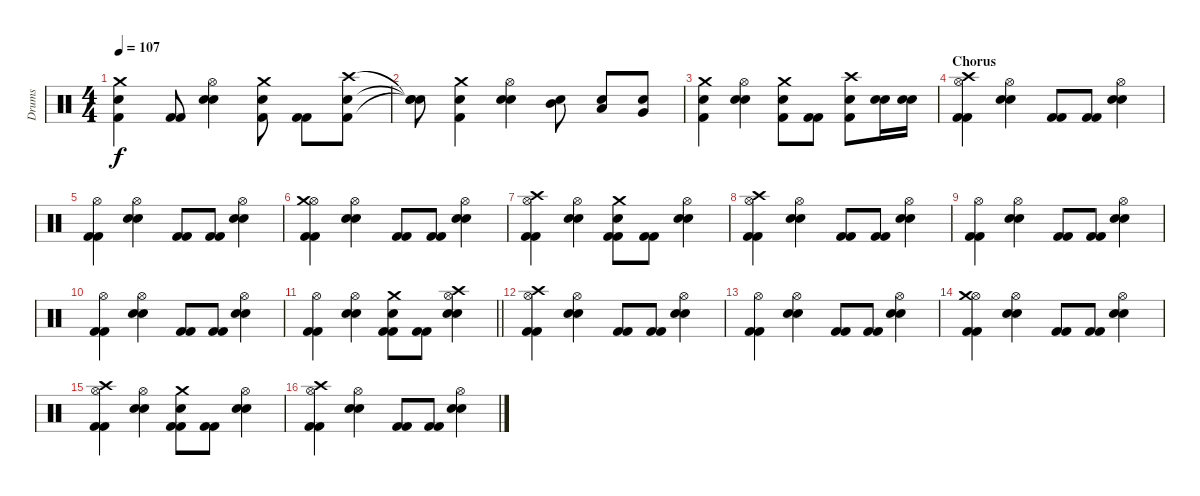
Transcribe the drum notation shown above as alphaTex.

\track ("Drums" "Drums") {instrument percussion}
\staff {score}
\articulation defaults
\ts (4 4)
\tempo 107
\clef neutral
\ks c
("Kick (hit) 2" "Snare (hit) 2" "Crash medium (hit)").4{dy f} ("Kick (hit) 2" "Kick (hit) 2").8 ("Snare (hit) 2" "Snare (hit) 2" "Hi-Hat (open)").4 ("Kick (hit) 2" "Snare (hit) 2" "Crash medium (hit)").8 ("Kick (hit) 2" "Kick (hit) 2").8 ("Kick (hit) 2" "Snare (hit) 2" "Crash high (hit)").8 |
("Snare (hit)"{t} "Snare (hit)"{t} "Snare (hit)"{t}).8 ("Kick (hit) 2" "Snare (hit) 2" "Crash medium (hit)").4 ("Snare (hit) 2" "Snare (hit) 2" "Hi-Hat (open)").4 ("Mid Tom (hit)" "Snare (hit) 2").8 ("Low Tom (hit)" "Snare (hit) 2").8 ("Very Low Tom (hit)" "Snare (hit) 2").8 |
("Kick (hit) 2" "Snare (hit) 2" "Crash medium (hit)").4 ("Snare (hit) 2" "Snare (hit) 2" "Hi-Hat (open)").4 ("Kick (hit) 2" "Snare (hit) 2" "Crash medium (hit)").8 ("Kick (hit) 2" "Kick (hit) 2").8 ("Kick (hit) 2" "Snare (hit) 2" "Crash high (hit)").8 ("Snare (hit) 2" "Snare (hit) 2").16 ("Snare (hit) 2" "Snare (hit) 2").16 |
\section ("" "Chorus")
("Kick (hit) 2" "Kick (hit) 2" "Hi-Hat (open)" "Crash high (hit)").4 ("Snare (hit) 2" "Snare (hit) 2" "Hi-Hat (open)").4 ("Kick (hit) 2" "Kick (hit) 2").8 ("Kick (hit) 2" "Kick (hit) 2").8 ("Snare (hit) 2" "Snare (hit) 2" "Hi-Hat (open)").4 |
("Kick (hit) 2" "Kick (hit) 2" "Hi-Hat (open)").4 ("Snare (hit) 2" "Snare (hit) 2" "Hi-Hat (open)").4 ("Kick (hit) 2" "Kick (hit) 2").8 ("Kick (hit) 2" "Kick (hit) 2").8 ("Snare (hit) 2" "Snare (hit) 2" "Hi-Hat (open)").4 |
("Kick (hit) 2" "Kick (hit) 2" "Hi-Hat (open)" "Crash medium (hit)").4 ("Snare (hit) 2" "Snare (hit) 2" "Hi-Hat (open)").4 ("Kick (hit) 2" "Kick (hit) 2").8 ("Kick (hit) 2" "Kick (hit) 2").8 ("Snare (hit) 2" "Snare (hit) 2" "Hi-Hat (open)").4 |
("Kick (hit) 2" "Kick (hit) 2" "Hi-Hat (open)" "Crash high (hit)").4 ("Snare (hit) 2" "Snare (hit) 2" "Hi-Hat (open)").4 ("Kick (hit) 2" "Kick (hit) 2" "Crash medium (hit)" "Snare (hit) 2").8 ("Kick (hit) 2" "Kick (hit) 2").8 ("Snare (hit) 2" "Snare (hit) 2" "Hi-Hat (open)").4 |
("Kick (hit) 2" "Kick (hit) 2" "Hi-Hat (open)" "Crash high (hit)").4 ("Snare (hit) 2" "Snare (hit) 2" "Hi-Hat (open)").4 ("Kick (hit) 2" "Kick (hit) 2").8 ("Kick (hit) 2" "Kick (hit) 2").8 ("Snare (hit) 2" "Snare (hit) 2" "Hi-Hat (open)").4 |
("Kick (hit) 2" "Kick (hit) 2" "Hi-Hat (open)").4 ("Snare (hit) 2" "Snare (hit) 2" "Hi-Hat (open)").4 ("Kick (hit) 2" "Kick (hit) 2").8 ("Kick (hit) 2" "Kick (hit) 2").8 ("Snare (hit) 2" "Snare (hit) 2" "Hi-Hat (open)").4 |
("Kick (hit) 2" "Kick (hit) 2" "Hi-Hat (open)").4 ("Snare (hit) 2" "Snare (hit) 2" "Hi-Hat (open)").4 ("Kick (hit) 2" "Kick (hit) 2").8 ("Kick (hit) 2" "Kick (hit) 2").8 ("Snare (hit) 2" "Snare (hit) 2" "Hi-Hat (open)").4 |
\barLineRight lightlight
("Kick (hit) 2" "Kick (hit) 2" "Hi-Hat (open)").4 ("Snare (hit) 2" "Snare (hit) 2" "Hi-Hat (open)").4 ("Kick (hit) 2" "Kick (hit) 2" "Crash medium (hit)" "Snare (hit) 2").8 ("Kick (hit) 2" "Kick (hit) 2").8 ("Snare (hit) 2" "Snare (hit) 2" "Hi-Hat (open)" "Crash high (hit)").4 |
("Kick (hit) 2" "Kick (hit) 2" "Hi-Hat (open)" "Crash high (hit)").4 ("Snare (hit) 2" "Snare (hit) 2" "Hi-Hat (open)").4 ("Kick (hit) 2" "Kick (hit) 2").8 ("Kick (hit) 2" "Kick (hit) 2").8 ("Snare (hit) 2" "Snare (hit) 2" "Hi-Hat (open)").4 |
("Kick (hit) 2" "Kick (hit) 2" "Hi-Hat (open)").4 ("Snare (hit) 2" "Snare (hit) 2" "Hi-Hat (open)").4 ("Kick (hit) 2" "Kick (hit) 2").8 ("Kick (hit) 2" "Kick (hit) 2").8 ("Snare (hit) 2" "Snare (hit) 2" "Hi-Hat (open)").4 |
("Kick (hit) 2" "Kick (hit) 2" "Hi-Hat (open)" "Crash medium (hit)").4 ("Snare (hit) 2" "Snare (hit) 2" "Hi-Hat (open)").4 ("Kick (hit) 2" "Kick (hit) 2").8 ("Kick (hit) 2" "Kick (hit) 2").8 ("Snare (hit) 2" "Snare (hit) 2" "Hi-Hat (open)").4 |
("Kick (hit) 2" "Kick (hit) 2" "Hi-Hat (open)" "Crash high (hit)").4 ("Snare (hit) 2" "Snare (hit) 2" "Hi-Hat (open)").4 ("Kick (hit) 2" "Kick (hit) 2" "Crash medium (hit)" "Snare (hit) 2").8 ("Kick (hit) 2" "Kick (hit) 2").8 ("Snare (hit) 2" "Snare (hit) 2" "Hi-Hat (open)").4 |
("Kick (hit) 2" "Kick (hit) 2" "Hi-Hat (open)" "Crash high (hit)").4 ("Snare (hit) 2" "Snare (hit) 2" "Hi-Hat (open)").4 ("Kick (hit) 2" "Kick (hit) 2").8 ("Kick (hit) 2" "Kick (hit) 2").8 ("Snare (hit) 2" "Snare (hit) 2" "Hi-Hat (open)").4
